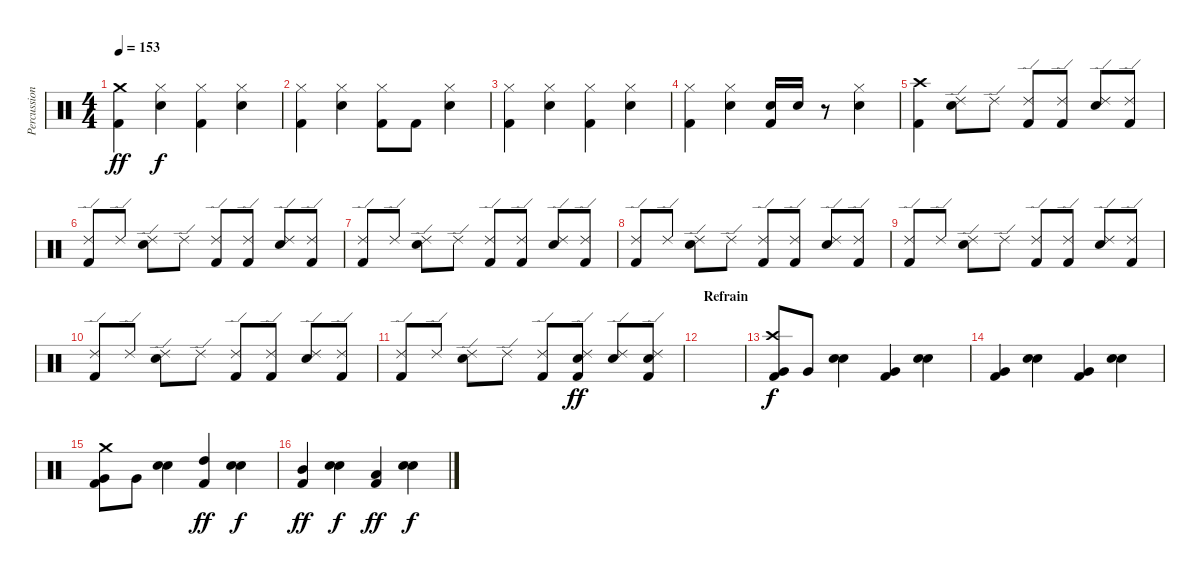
\track ("Percussion" "Percussion") {instrument percussion}
\staff {score}
\articulation defaults
\ts (4 4)
\tempo 153
\clef neutral
\ks c
("Crash medium (hit)" "Kick (hit) 2").4{dy ff} ("Hi-Hat (closed)" "Electric Snare (hit)").4{dy f} ("Hi-Hat (closed)" "Kick (hit) 2").4 ("Hi-Hat (closed)" "Electric Snare (hit)").4 |
("Hi-Hat (closed)" "Kick (hit) 2").4 ("Hi-Hat (closed)" "Electric Snare (hit)").4 ("Hi-Hat (closed)" "Kick (hit) 2").8 "Kick (hit) 2".8 ("Hi-Hat (closed)" "Electric Snare (hit)").4 |
("Hi-Hat (closed)" "Kick (hit) 2").4 ("Hi-Hat (closed)" "Electric Snare (hit)").4 ("Hi-Hat (closed)" "Kick (hit) 2").4 ("Hi-Hat (closed)" "Electric Snare (hit)").4 |
("Hi-Hat (closed)" "Kick (hit) 2").4 ("Hi-Hat (closed)" "Electric Snare (hit)").4 ("Snare (hit) 2" "Kick (hit) 2").16 "Snare (hit) 2".16 r.8 ("Hi-Hat (closed)" "Electric Snare (hit)").4 |
("Crash high (hit)" "Kick (hit) 2").4 ("Ride (edge) 2" "Electric Snare (hit)").8 "Ride (edge) 2".8 ("Ride (edge) 2" "Kick (hit) 2").8 ("Ride (edge) 2" "Kick (hit) 2").8 ("Ride (edge) 2" "Electric Snare (hit)").8 ("Ride (edge) 2" "Kick (hit) 2").8 |
("Ride (edge) 2" "Kick (hit) 2").8 "Ride (edge) 2".8 ("Ride (edge) 2" "Electric Snare (hit)").8 "Ride (edge) 2".8 ("Ride (edge) 2" "Kick (hit) 2").8 ("Ride (edge) 2" "Kick (hit) 2").8 ("Ride (edge) 2" "Electric Snare (hit)").8 ("Ride (edge) 2" "Kick (hit) 2").8 |
("Ride (edge) 2" "Kick (hit) 2").8 "Ride (edge) 2".8 ("Ride (edge) 2" "Electric Snare (hit)").8 "Ride (edge) 2".8 ("Ride (edge) 2" "Kick (hit) 2").8 ("Ride (edge) 2" "Kick (hit) 2").8 ("Ride (edge) 2" "Electric Snare (hit)").8 ("Ride (edge) 2" "Kick (hit) 2").8 |
("Ride (edge) 2" "Kick (hit) 2").8 "Ride (edge) 2".8 ("Ride (edge) 2" "Electric Snare (hit)").8 "Ride (edge) 2".8 ("Ride (edge) 2" "Kick (hit) 2").8 ("Ride (edge) 2" "Kick (hit) 2").8 ("Ride (edge) 2" "Electric Snare (hit)").8 ("Ride (edge) 2" "Kick (hit) 2").8 |
("Ride (edge) 2" "Kick (hit) 2").8 "Ride (edge) 2".8 ("Ride (edge) 2" "Electric Snare (hit)").8 "Ride (edge) 2".8 ("Ride (edge) 2" "Kick (hit) 2").8 ("Ride (edge) 2" "Kick (hit) 2").8 ("Ride (edge) 2" "Electric Snare (hit)").8 ("Ride (edge) 2" "Kick (hit) 2").8 |
("Ride (edge) 2" "Kick (hit) 2").8 "Ride (edge) 2".8 ("Ride (edge) 2" "Electric Snare (hit)").8 "Ride (edge) 2".8 ("Ride (edge) 2" "Kick (hit) 2").8 ("Ride (edge) 2" "Kick (hit) 2").8 ("Ride (edge) 2" "Electric Snare (hit)").8 ("Ride (edge) 2" "Kick (hit) 2").8 |
("Ride (edge) 2" "Kick (hit) 2").8 "Ride (edge) 2".8 ("Ride (edge) 2" "Electric Snare (hit)").8 "Ride (edge) 2".8 ("Ride (edge) 2" "Kick (hit) 2").8 ("Ride (edge) 2" "Electric Snare (hit)" "Kick (hit) 2").8{dy ff} ("Ride (edge) 2" "Electric Snare (hit)").8 ("Ride (edge) 2" "Electric Snare (hit)" "Kick (hit) 2").8 |
\section ("" "Refrain")
|
("Crash high (hit)" "Very Low Tom (hit)" "Kick (hit) 2").8{dy f} "Very Low Tom (hit)".8 ("Electric Snare (hit)" "Snare (hit) 2").4 ("Very Low Tom (hit)" "Kick (hit) 2").4 ("Electric Snare (hit)" "Snare (hit) 2").4 |
("Very Low Tom (hit)" "Kick (hit) 2").4 ("Electric Snare (hit)" "Snare (hit) 2").4 ("Very Low Tom (hit)" "Kick (hit) 2").4 ("Electric Snare (hit)" "Snare (hit) 2").4 |
("Crash medium (hit)" "Very Low Tom (hit)" "Kick (hit) 2").8 "Very Low Tom (hit)".8 ("Electric Snare (hit)" "Snare (hit) 2").4 ("High Tom (hit)" "Kick (hit) 2").4{dy ff} ("Electric Snare (hit)" "Snare (hit) 2").4{dy f} |
("Mid Tom (hit)" "Kick (hit) 2").4{dy ff} ("Electric Snare (hit)" "Snare (hit) 2").4{dy f} ("Low Tom (hit)" "Kick (hit) 2").4{dy ff} ("Electric Snare (hit)" "Snare (hit) 2").4{dy f}
